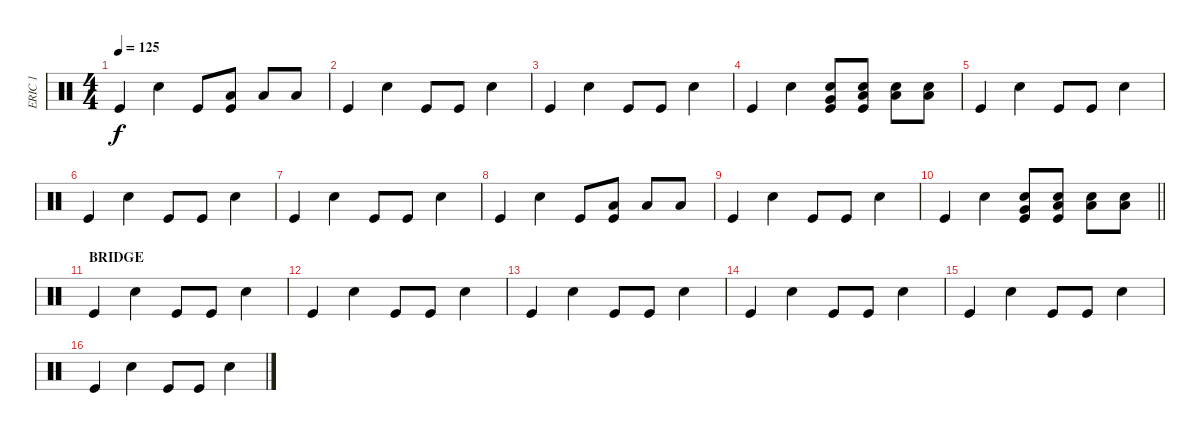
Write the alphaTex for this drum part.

\track ("ERIC 1" "ERIC 1") {instrument percussion}
\staff {score}
\articulation defaults
\ts (4 4)
\tempo 125
\clef neutral
\ks c "Kick (hit)".4{dy f} "Electric Snare (hit)".4 "Kick (hit)".8
("Low Tom (hit)" "Kick (hit)").8 "Low Floor Tom (hit)".8 "Low Floor Tom (hit)".8 |
"Kick (hit)".4 "Electric Snare (hit)".4 "Kick (hit)".8 "Kick (hit)".8 "Electric Snare (hit)".4 |
"Kick (hit)".4 "Electric Snare (hit)".4 "Kick (hit)".8 "Kick (hit)".8 "Electric Snare (hit)".4 |
"Kick (hit)".4 "Electric Snare (hit)".4 ("Electric Snare (hit)" "Very Low Tom (hit)" "Kick (hit)").8 ("Electric Snare (hit)" "Low Tom (hit)" "Kick (hit)").8 ("Electric Snare (hit)" "Low Floor Tom (hit)").8 ("Electric Snare (hit)" "Low Floor Tom (hit)").8 |
"Kick (hit)".4 "Electric Snare (hit)".4 "Kick (hit)".8 "Kick (hit)".8 "Electric Snare (hit)".4 |
"Kick (hit)".4 "Electric Snare (hit)".4 "Kick (hit)".8 "Kick (hit)".8 "Electric Snare (hit)".4 |
"Kick (hit)".4 "Electric Snare (hit)".4 "Kick (hit)".8 "Kick (hit)".8 "Electric Snare (hit)".4 |
"Kick (hit)".4 "Electric Snare (hit)".4 "Kick (hit)".8 ("Low Tom (hit)" "Kick (hit)").8 "Low Floor Tom (hit)".8 "Low Floor Tom (hit)".8 |
"Kick (hit)".4 "Electric Snare (hit)".4 "Kick (hit)".8 "Kick (hit)".8 "Electric Snare (hit)".4 |
\barLineRight lightlight "Kick (hit)".4 "Electric Snare (hit)".4
("Electric Snare (hit)" "Very Low Tom (hit)" "Kick (hit)").8 ("Electric Snare (hit)" "Low Tom (hit)" "Kick (hit)").8 ("Electric Snare (hit)" "Low Floor Tom (hit)").8 ("Electric Snare (hit)" "Low Floor Tom (hit)").8 |
\section ("" "BRIDGE")
"Kick (hit)".4 "Electric Snare (hit)".4 "Kick (hit)".8 "Kick (hit)".8 "Electric Snare (hit)".4 |
"Kick (hit)".4 "Electric Snare (hit)".4 "Kick (hit)".8 "Kick (hit)".8 "Electric Snare (hit)".4 |
"Kick (hit)".4 "Electric Snare (hit)".4 "Kick (hit)".8 "Kick (hit)".8 "Electric Snare (hit)".4 |
"Kick (hit)".4 "Electric Snare (hit)".4 "Kick (hit)".8 "Kick (hit)".8 "Electric Snare (hit)".4 |
"Kick (hit)".4 "Electric Snare (hit)".4 "Kick (hit)".8 "Kick (hit)".8 "Electric Snare (hit)".4 |
"Kick (hit)".4 "Electric Snare (hit)".4 "Kick (hit)".8 "Kick (hit)".8 "Electric Snare (hit)".4
